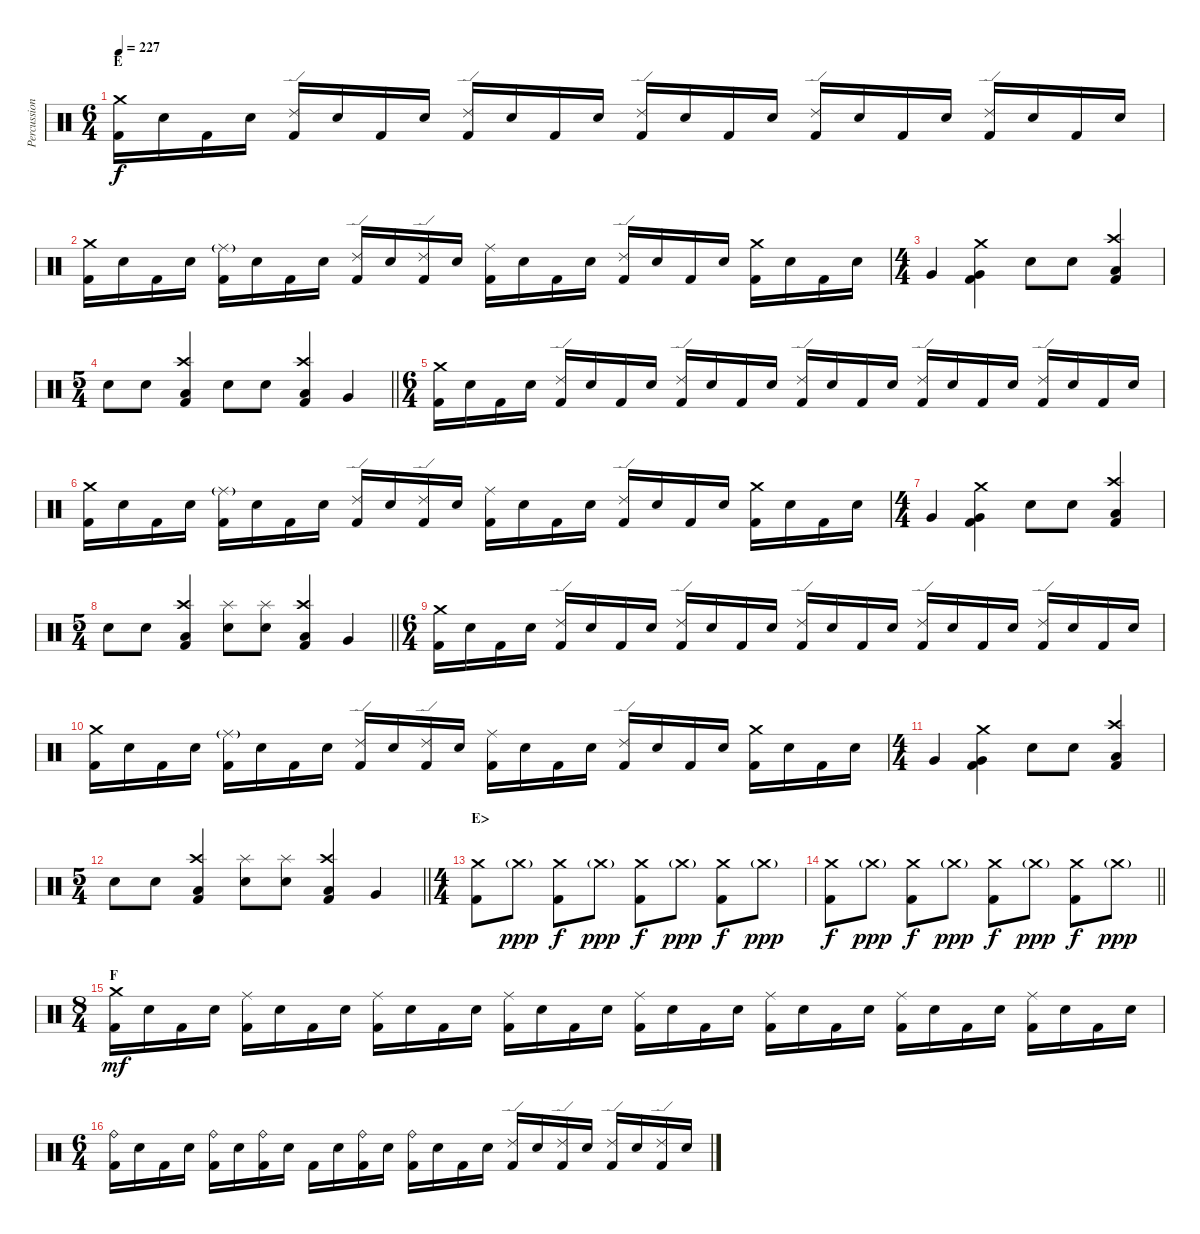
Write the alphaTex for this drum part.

\track ("Percussion" "Percussion") {instrument percussion}
\staff {score}
\articulation defaults
\ts (6 4)
\section ("" "E")
\tempo 227
\clef neutral
\ks c
("Crash medium (hit)" "Kick (hit) 2").16{dy f} "Electric Snare (hit)".16 "Kick (hit) 2".16 "Electric Snare (hit)".16 ("Ride (edge) 2" "Kick (hit) 2").16 "Electric Snare (hit)".16 "Kick (hit) 2".16 "Electric Snare (hit)".16 ("Ride (edge) 2" "Kick (hit) 2").16 "Electric Snare (hit)".16 "Kick (hit) 2".16 "Electric Snare (hit)".16 ("Ride (edge) 2" "Kick (hit) 2").16 "Electric Snare (hit)".16 "Kick (hit) 2".16 "Electric Snare (hit)".16 ("Ride (edge) 2" "Kick (hit) 2").16 "Electric Snare (hit)".16 "Kick (hit) 2".16 "Electric Snare (hit)".16 ("Ride (edge) 2" "Kick (hit) 2").16 "Electric Snare (hit)".16 "Kick (hit) 2".16 "Electric Snare (hit)".16 |
("Crash medium (hit)" "Kick (hit) 2").16 "Electric Snare (hit)".16 "Kick (hit) 2".16 "Electric Snare (hit)".16 ("Ride (middle)"{g} "Kick (hit) 2").16 "Electric Snare (hit)".16 "Kick (hit) 2".16 "Electric Snare (hit)".16 ("Ride (edge) 2" "Kick (hit) 2").16 "Electric Snare (hit)".16 ("Ride (edge) 2" "Kick (hit) 2").16 "Electric Snare (hit)".16 ("Ride (middle)" "Kick (hit) 2").16 "Electric Snare (hit)".16 "Kick (hit) 2".16 "Electric Snare (hit)".16 ("Ride (edge) 2" "Kick (hit) 2").16 "Electric Snare (hit)".16 "Kick (hit) 2".16 "Electric Snare (hit)".16 ("Crash medium (hit)" "Kick (hit) 2").16 "Electric Snare (hit)".16 "Kick (hit) 2".16 "Electric Snare (hit)".16 |
\ts (4 4)
"Very Low Tom (hit)".4 ("Crash medium (hit)" "Very Low Tom (hit)" "Kick (hit) 2").4 "Electric Snare (hit)".8 "Electric Snare (hit)".8 ("Crash high (hit)" "Low Tom (hit)" "Kick (hit) 2").4 |
\ts (5 4)
\barLineRight lightlight "Electric Snare (hit)".8 "Electric Snare (hit)".8
("Crash high (hit)" "Low Tom (hit)" "Kick (hit) 2").4 "Electric Snare (hit)".8 "Electric Snare (hit)".8 ("Crash high (hit)" "Low Floor Tom (hit)" "Kick (hit) 2").4 "Very Low Tom (hit)".4 |
\ts (6 4)
\section ("" "")
("Crash medium (hit)" "Kick (hit) 2").16 "Electric Snare (hit)".16 "Kick (hit) 2".16 "Electric Snare (hit)".16 ("Ride (edge) 2" "Kick (hit) 2").16 "Electric Snare (hit)".16 "Kick (hit) 2".16 "Electric Snare (hit)".16 ("Ride (edge) 2" "Kick (hit) 2").16 "Electric Snare (hit)".16 "Kick (hit) 2".16 "Electric Snare (hit)".16 ("Ride (edge) 2" "Kick (hit) 2").16 "Electric Snare (hit)".16 "Kick (hit) 2".16 "Electric Snare (hit)".16 ("Ride (edge) 2" "Kick (hit) 2").16 "Electric Snare (hit)".16 "Kick (hit) 2".16 "Electric Snare (hit)".16 ("Ride (edge) 2" "Kick (hit) 2").16 "Electric Snare (hit)".16 "Kick (hit) 2".16 "Electric Snare (hit)".16 |
("Crash medium (hit)" "Kick (hit) 2").16 "Electric Snare (hit)".16 "Kick (hit) 2".16 "Electric Snare (hit)".16 ("Ride (middle)"{g} "Kick (hit) 2").16 "Electric Snare (hit)".16 "Kick (hit) 2".16 "Electric Snare (hit)".16 ("Ride (edge) 2" "Kick (hit) 2").16 "Electric Snare (hit)".16 ("Ride (edge) 2" "Kick (hit) 2").16 "Electric Snare (hit)".16 ("Ride (middle)" "Kick (hit) 2").16 "Electric Snare (hit)".16 "Kick (hit) 2".16 "Electric Snare (hit)".16 ("Ride (edge) 2" "Kick (hit) 2").16 "Electric Snare (hit)".16 "Kick (hit) 2".16 "Electric Snare (hit)".16 ("Crash medium (hit)" "Kick (hit) 2").16 "Electric Snare (hit)".16 "Kick (hit) 2".16 "Electric Snare (hit)".16 |
\ts (4 4)
"Very Low Tom (hit)".4 ("Crash medium (hit)" "Very Low Tom (hit)" "Kick (hit) 2").4 "Electric Snare (hit)".8 "Electric Snare (hit)".8 ("Crash high (hit)" "Low Tom (hit)" "Kick (hit) 2").4 |
\ts (5 4)
\barLineRight lightlight "Electric Snare (hit)".8 "Electric Snare (hit)".8
("Crash high (hit)" "Low Tom (hit)" "Kick (hit) 2").4 ("Splash (hit)" "Electric Snare (hit)").8 ("Splash (hit)" "Electric Snare (hit)").8 ("Crash high (hit)" "Low Floor Tom (hit)" "Kick (hit) 2").4 "Very Low Tom (hit)".4 |
\ts (6 4)
\section ("" "")
("Crash medium (hit)" "Kick (hit) 2").16 "Electric Snare (hit)".16 "Kick (hit) 2".16 "Electric Snare (hit)".16 ("Ride (edge) 2" "Kick (hit) 2").16 "Electric Snare (hit)".16 "Kick (hit) 2".16 "Electric Snare (hit)".16 ("Ride (edge) 2" "Kick (hit) 2").16 "Electric Snare (hit)".16 "Kick (hit) 2".16 "Electric Snare (hit)".16 ("Ride (edge) 2" "Kick (hit) 2").16 "Electric Snare (hit)".16 "Kick (hit) 2".16 "Electric Snare (hit)".16 ("Ride (edge) 2" "Kick (hit) 2").16 "Electric Snare (hit)".16 "Kick (hit) 2".16 "Electric Snare (hit)".16 ("Ride (edge) 2" "Kick (hit) 2").16 "Electric Snare (hit)".16 "Kick (hit) 2".16 "Electric Snare (hit)".16 |
("Crash medium (hit)" "Kick (hit) 2").16 "Electric Snare (hit)".16 "Kick (hit) 2".16 "Electric Snare (hit)".16 ("Ride (middle)"{g} "Kick (hit) 2").16 "Electric Snare (hit)".16 "Kick (hit) 2".16 "Electric Snare (hit)".16 ("Ride (edge) 2" "Kick (hit) 2").16 "Electric Snare (hit)".16 ("Ride (edge) 2" "Kick (hit) 2").16 "Electric Snare (hit)".16 ("Ride (middle)" "Kick (hit) 2").16 "Electric Snare (hit)".16 "Kick (hit) 2".16 "Electric Snare (hit)".16 ("Ride (edge) 2" "Kick (hit) 2").16 "Electric Snare (hit)".16 "Kick (hit) 2".16 "Electric Snare (hit)".16 ("Crash medium (hit)" "Kick (hit) 2").16 "Electric Snare (hit)".16 "Kick (hit) 2".16 "Electric Snare (hit)".16 |
\ts (4 4)
"Very Low Tom (hit)".4 ("Crash medium (hit)" "Very Low Tom (hit)" "Kick (hit) 2").4 "Electric Snare (hit)".8 "Electric Snare (hit)".8 ("Crash high (hit)" "Low Tom (hit)" "Kick (hit) 2").4 |
\ts (5 4)
\barLineRight lightlight "Electric Snare (hit)".8 "Electric Snare (hit)".8
("Crash high (hit)" "Low Tom (hit)" "Kick (hit) 2").4 ("Splash (hit)" "Electric Snare (hit)").8 ("Splash (hit)" "Electric Snare (hit)").8 ("Crash high (hit)" "Low Floor Tom (hit)" "Kick (hit) 2").4 "Very Low Tom (hit)".4 |
\ts (4 4)
\section ("" "E>")
("Crash medium (hit)" "Kick (hit) 2").8 "Crash medium (hit)"{g}.8{dy ppp} ("Crash medium (hit)" "Kick (hit) 2").8{dy f} "Crash medium (hit)"{g}.8{dy ppp} ("Crash medium (hit)" "Kick (hit) 2").8{dy f} "Crash medium (hit)"{g}.8{dy ppp} ("Crash medium (hit)" "Kick (hit) 2").8{dy f} "Crash medium (hit)"{g}.8{dy ppp} |
\barLineRight lightlight
("Crash medium (hit)" "Kick (hit) 2").8{dy f} "Crash medium (hit)"{g}.8{dy ppp} ("Crash medium (hit)" "Kick (hit) 2").8{dy f} "Crash medium (hit)"{g}.8{dy ppp} ("Crash medium (hit)" "Kick (hit) 2").8{dy f} "Crash medium (hit)"{g}.8{dy ppp} ("Crash medium (hit)" "Kick (hit) 2").8{dy f} "Crash medium (hit)"{g}.8{dy ppp} |
\ts (8 4)
\section ("" "F")
("Crash medium (hit)" "Kick (hit) 2").16{dy mf} "Electric Snare (hit)".16 "Kick (hit) 2".16 "Electric Snare (hit)".16 ("Ride (middle)" "Kick (hit) 2").16 "Electric Snare (hit)".16 "Kick (hit) 2".16 "Electric Snare (hit)".16 ("Ride (middle)" "Kick (hit) 2").16 "Electric Snare (hit)".16 "Kick (hit) 2".16 "Electric Snare (hit)".16 ("Ride (middle)" "Kick (hit) 2").16 "Electric Snare (hit)".16 "Kick (hit) 2".16 "Electric Snare (hit)".16 ("Ride (middle)" "Kick (hit) 2").16 "Electric Snare (hit)".16 "Kick (hit) 2".16 "Electric Snare (hit)".16 ("Ride (middle)" "Kick (hit) 2").16 "Electric Snare (hit)".16 "Kick (hit) 2".16 "Electric Snare (hit)".16 ("Ride (middle)" "Kick (hit) 2").16 "Electric Snare (hit)".16 "Kick (hit) 2".16 "Electric Snare (hit)".16 ("Ride (middle)" "Kick (hit) 2").16 "Electric Snare (hit)".16 "Kick (hit) 2".16 "Electric Snare (hit)".16 |
\ts (6 4)
("Ride (bell)" "Kick (hit) 2").16 "Electric Snare (hit)".16 "Kick (hit) 2".16 "Electric Snare (hit)".16 ("Ride (bell)" "Kick (hit) 2").16 "Electric Snare (hit)".16 ("Ride (bell)" "Kick (hit) 2").16 "Electric Snare (hit)".16 "Kick (hit) 2".16 "Electric Snare (hit)".16 ("Ride (bell)" "Kick (hit) 2").16 "Electric Snare (hit)".16 ("Ride (bell)" "Kick (hit) 2").16 "Electric Snare (hit)".16 "Kick (hit) 2".16 "Electric Snare (hit)".16 ("Ride (edge) 2" "Kick (hit) 2").16 "Electric Snare (hit)".16 ("Ride (edge) 2" "Kick (hit) 2").16 "Electric Snare (hit)".16 ("Ride (edge) 2" "Kick (hit) 2").16 "Electric Snare (hit)".16 ("Ride (edge) 2" "Kick (hit) 2").16 "Electric Snare (hit)".16
